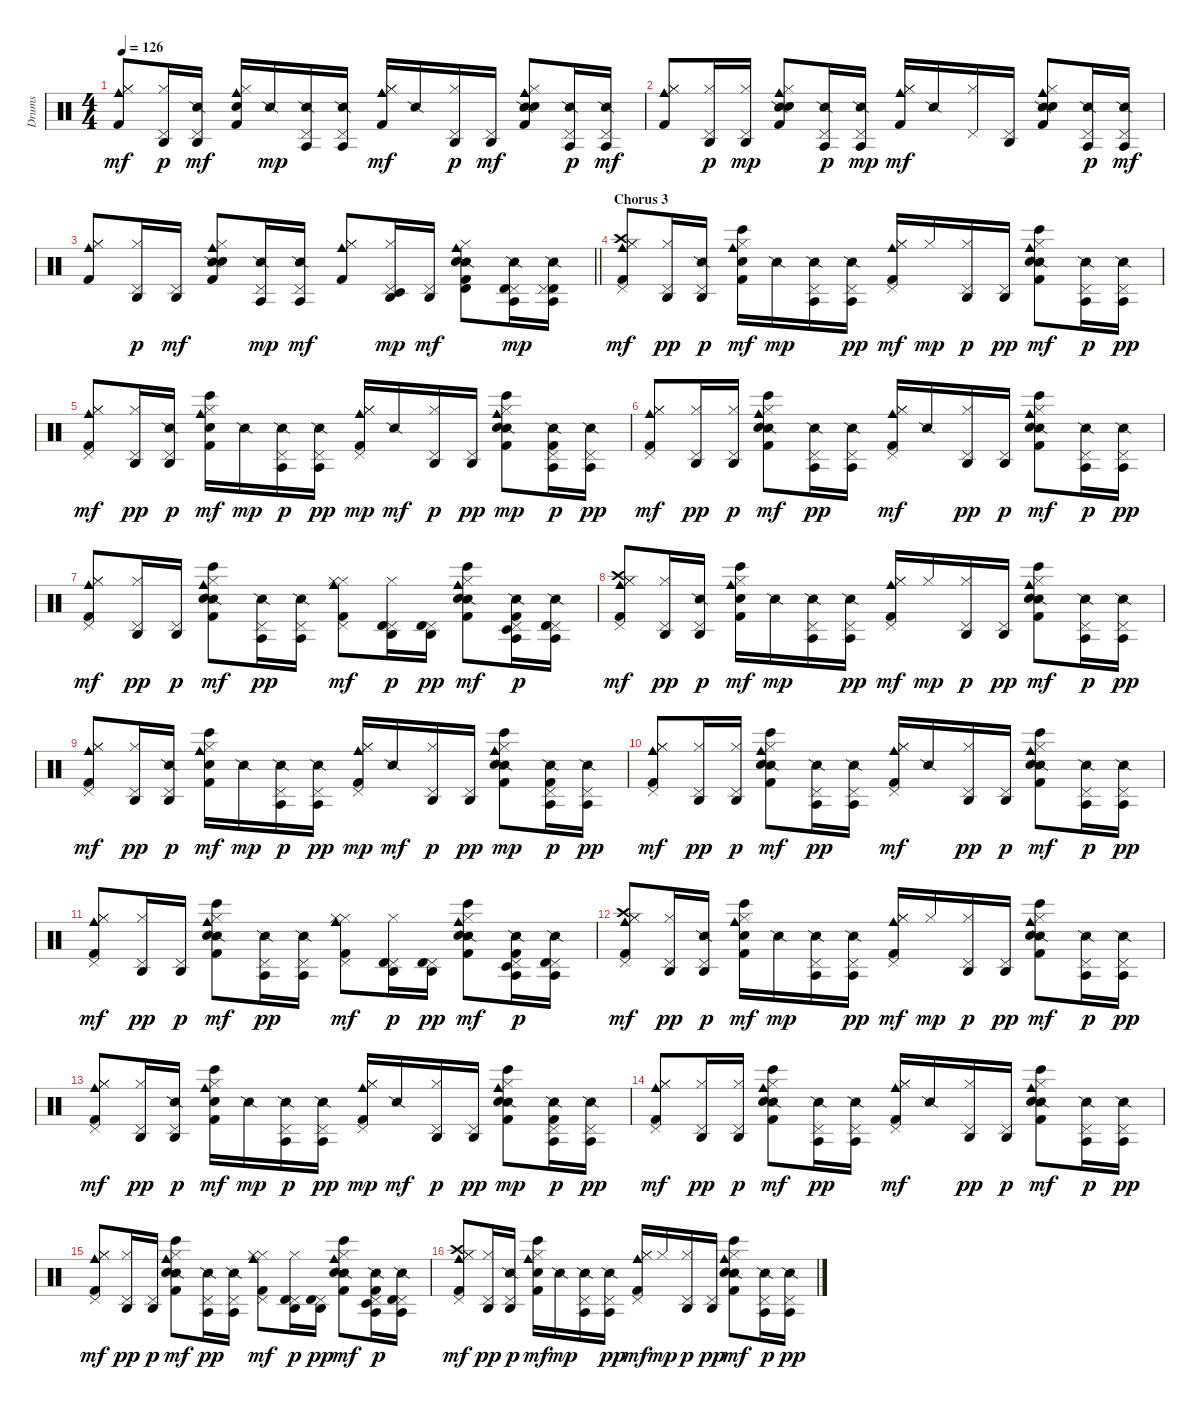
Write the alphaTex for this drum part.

\track ("Drums" "Drums") {instrument percussion}
\staff {score}
\articulation defaults
\ts (4 4)
\tempo 126
\clef neutral
\ks c
("Hi-Hat (closed)" "Kick (hit) 2" "Hi-Hat (closed)" "Cowbell medium (hit)").8{dy mf} ("Hi-Hat (closed)" "Pedal Hi-Hat (hit)" "Agogo high (hit)").16{dy p} ("Snare (side stick) 2" "Agogo high (hit)" "Pedal Hi-Hat (hit)").16{dy mf} ("Kick (hit) 2" "Hand Clap (hit)" "Hi-Hat (closed)" "Cowbell medium (hit)").16 "Snare (side stick) 2".16{dy mp} ("Snare (side stick) 2" "Pedal Hi-Hat (hit)" "Agogo tow (hit)").16 ("Snare (side stick) 2" "Agogo tow (hit)" "Pedal Hi-Hat (hit)").16 ("Hi-Hat (closed)" "Kick (hit) 2" "Hi-Hat (closed)" "Cowbell medium (hit)").16{dy mf} "Snare (side stick) 2".16 ("Hi-Hat (closed)" "Pedal Hi-Hat (hit)" "Agogo high (hit)").16{dy p} ("Agogo high (hit)" "Pedal Hi-Hat (hit)").16{dy mf} ("Snare (side stick) 2" "Kick (hit) 2" "Hand Clap (hit)" "Hi-Hat (closed)" "Cowbell medium (hit)").8 ("Snare (side stick) 2" "Pedal Hi-Hat (hit)" "Agogo tow (hit)").16{dy p} ("Snare (side stick) 2" "Agogo tow (hit)" "Pedal Hi-Hat (hit)").16{dy mf} |
("Hi-Hat (closed)" "Kick (hit) 2" "Hi-Hat (closed)" "Cowbell medium (hit)").8 ("Hi-Hat (closed)" "Pedal Hi-Hat (hit)" "Agogo high (hit)").16{dy p} ("Hi-Hat (closed)" "Agogo high (hit)" "Pedal Hi-Hat (hit)").16{dy mp} ("Snare (side stick) 2" "Kick (hit) 2" "Hand Clap (hit)" "Hi-Hat (closed)" "Cowbell medium (hit)").8 ("Snare (side stick) 2" "Pedal Hi-Hat (hit)" "Agogo tow (hit)").16{dy p} ("Snare (side stick) 2" "Agogo tow (hit)" "Pedal Hi-Hat (hit)").16{dy mp} ("Hi-Hat (closed)" "Kick (hit) 2" "Hi-Hat (closed)" "Cowbell medium (hit)").16{dy mf} "Snare (side stick) 2".16 ("Hi-Hat (closed)" "Pedal Hi-Hat (hit)").16 ("Agogo high (hit)" "Pedal Hi-Hat (hit)").16 ("Snare (side stick) 2" "Kick (hit) 2" "Hand Clap (hit)" "Hi-Hat (closed)" "Cowbell medium (hit)").8 ("Snare (side stick) 2" "Pedal Hi-Hat (hit)" "Agogo tow (hit)").16{dy p} ("Snare (side stick) 2" "Agogo tow (hit)" "Pedal Hi-Hat (hit)").16{dy mf} |
\barLineRight lightlight
("Hi-Hat (closed)" "Kick (hit) 2" "Hi-Hat (closed)" "Cowbell medium (hit)").8 ("Hi-Hat (closed)" "Pedal Hi-Hat (hit)" "Agogo high (hit)").16{dy p} ("Agogo high (hit)" "Pedal Hi-Hat (hit)").16{dy mf} ("Snare (side stick) 2" "Kick (hit) 2" "Hand Clap (hit)" "Hi-Hat (closed)" "Cowbell medium (hit)").8 ("Snare (side stick) 2" "Pedal Hi-Hat (hit)" "Agogo tow (hit)").16{dy mp} ("Snare (side stick) 2" "Agogo tow (hit)" "Pedal Hi-Hat (hit)").16{dy mf} ("Hi-Hat (closed)" "Kick (hit) 2" "Hi-Hat (closed)" "Cowbell medium (hit)").8 ("Hi-Hat (closed)" "Pedal Hi-Hat (hit)" "Timbale low (hit)" "Agogo high (hit)").16{dy mp} ("Agogo high (hit)" "Pedal Hi-Hat (hit)").16{dy mf} ("Snare (side stick) 2" "Kick (hit) 2" "Hand Clap (hit)" "Hi-Hat (closed)" "Cowbell medium (hit)" "Timbale high (hit)").8 ("Snare (side stick) 2" "Pedal Hi-Hat (hit)" "Timbale high (hit)" "Agogo tow (hit)").16{dy mp} ("Snare (side stick) 2" "Timbale high (hit)" "Agogo tow (hit)" "Pedal Hi-Hat (hit)").16 |
\section ("" "Chorus 3")
("Hi-Hat (closed)" "Kick (hit) 2" "Hi-Hat (closed)" "Pedal Hi-Hat (hit)" "Crash high (hit)" "Cowbell medium (hit)").8{dy mf} ("Hi-Hat (closed)" "Pedal Hi-Hat (hit)" "Agogo high (hit)").16{dy pp} ("Snare (side stick) 2" "Pedal Hi-Hat (hit)" "Agogo high (hit)").16{dy p} ("Bongo High (hit)" "Kick (hit) 2" "Hand Clap (hit)" "Hi-Hat (closed)" "Cowbell medium (hit)").16{dy mf} "Snare (side stick) 2".16{dy mp} ("Snare (side stick) 2" "Pedal Hi-Hat (hit)" "Agogo tow (hit)").16 ("Snare (side stick) 2" "Pedal Hi-Hat (hit)" "Agogo tow (hit)").16{dy pp} ("Hi-Hat (closed)" "Kick (hit) 2" "Hi-Hat (closed)" "Pedal Hi-Hat (hit)" "Cowbell medium (hit)").16{dy mf} "Hi-Hat (closed)".16{dy mp} ("Hi-Hat (closed)" "Pedal Hi-Hat (hit)" "Agogo high (hit)").16{dy p} ("Pedal Hi-Hat (hit)" "Agogo high (hit)").16{dy pp} ("Bongo High (hit)" "Snare (side stick) 2" "Kick (hit) 2" "Hand Clap (hit)" "Hi-Hat (closed)" "Cowbell medium (hit)").8{dy mf} ("Snare (side stick) 2" "Pedal Hi-Hat (hit)" "Agogo tow (hit)").16{dy p} ("Snare (side stick) 2" "Pedal Hi-Hat (hit)" "Agogo tow (hit)").16{dy pp} |
("Hi-Hat (closed)" "Kick (hit) 2" "Hi-Hat (closed)" "Pedal Hi-Hat (hit)" "Cowbell medium (hit)").8{dy mf} ("Hi-Hat (closed)" "Pedal Hi-Hat (hit)" "Agogo high (hit)").16{dy pp} ("Snare (side stick) 2" "Pedal Hi-Hat (hit)" "Agogo high (hit)").16{dy p} ("Bongo High (hit)" "Kick (hit) 2" "Hand Clap (hit)" "Hi-Hat (closed)" "Cowbell medium (hit)").16{dy mf} "Snare (side stick) 2".16{dy mp} ("Snare (side stick) 2" "Pedal Hi-Hat (hit)" "Agogo tow (hit)").16{dy p} ("Snare (side stick) 2" "Pedal Hi-Hat (hit)" "Agogo tow (hit)").16{dy pp} ("Hi-Hat (closed)" "Kick (hit) 2" "Hi-Hat (closed)" "Pedal Hi-Hat (hit)" "Cowbell medium (hit)").16{dy mp} "Snare (side stick) 2".16{dy mf} ("Hi-Hat (closed)" "Pedal Hi-Hat (hit)" "Agogo high (hit)").16{dy p} ("Pedal Hi-Hat (hit)" "Agogo high (hit)").16{dy pp} ("Bongo High (hit)" "Snare (side stick) 2" "Kick (hit) 2" "Hand Clap (hit)" "Hi-Hat (closed)" "Cowbell medium (hit)").8{dy mp} ("Snare (side stick) 2" "Kick (hit) 2" "Pedal Hi-Hat (hit)" "Agogo tow (hit)").16{dy p} ("Snare (side stick) 2" "Pedal Hi-Hat (hit)" "Agogo tow (hit)").16{dy pp} |
("Hi-Hat (closed)" "Kick (hit) 2" "Hi-Hat (closed)" "Pedal Hi-Hat (hit)" "Cowbell medium (hit)").8{dy mf} ("Hi-Hat (closed)" "Pedal Hi-Hat (hit)" "Agogo high (hit)").16{dy pp} ("Hi-Hat (closed)" "Pedal Hi-Hat (hit)" "Agogo high (hit)").16{dy p} ("Bongo High (hit)" "Snare (side stick) 2" "Kick (hit) 2" "Hand Clap (hit)" "Hi-Hat (closed)" "Cowbell medium (hit)").8{dy mf} ("Snare (side stick) 2" "Pedal Hi-Hat (hit)" "Agogo tow (hit)").16{dy pp} ("Snare (side stick) 2" "Pedal Hi-Hat (hit)" "Agogo tow (hit)").16 ("Hi-Hat (closed)" "Kick (hit) 2" "Hi-Hat (closed)" "Pedal Hi-Hat (hit)" "Cowbell medium (hit)").16{dy mf} "Snare (side stick) 2".16 ("Hi-Hat (closed)" "Pedal Hi-Hat (hit)" "Agogo high (hit)").16{dy pp} ("Pedal Hi-Hat (hit)" "Agogo high (hit)").16{dy p} ("Bongo High (hit)" "Snare (side stick) 2" "Kick (hit) 2" "Hand Clap (hit)" "Hi-Hat (closed)" "Cowbell medium (hit)").8{dy mf} ("Snare (side stick) 2" "Pedal Hi-Hat (hit)" "Agogo tow (hit)").16{dy p} ("Snare (side stick) 2" "Pedal Hi-Hat (hit)" "Agogo tow (hit)").16{dy pp} |
("Hi-Hat (closed)" "Kick (hit) 2" "Hi-Hat (closed)" "Pedal Hi-Hat (hit)" "Cowbell medium (hit)").8{dy mf} ("Hi-Hat (closed)" "Pedal Hi-Hat (hit)" "Agogo high (hit)").16{dy pp} ("Pedal Hi-Hat (hit)" "Agogo high (hit)").16{dy p} ("Bongo High (hit)" "Snare (side stick) 2" "Kick (hit) 2" "Hand Clap (hit)" "Hi-Hat (closed)" "Cowbell medium (hit)").8{dy mf} ("Snare (side stick) 2" "Pedal Hi-Hat (hit)" "Agogo tow (hit)").16{dy pp} ("Snare (side stick) 2" "Pedal Hi-Hat (hit)" "Agogo tow (hit)").16 ("Hi-Hat (closed)" "Kick (hit) 2" "Hi-Hat (closed)" "Pedal Hi-Hat (hit)" "Cowbell medium (hit)").8{dy mf} ("Hi-Hat (closed)" "Pedal Hi-Hat (hit)" "Timbale high (hit)" "Agogo high (hit)").16{dy p} ("Pedal Hi-Hat (hit)" "Timbale high (hit)" "Agogo high (hit)").16{dy pp} ("Bongo High (hit)" "Snare (side stick) 2" "Kick (hit) 2" "Hand Clap (hit)" "Hi-Hat (closed)" "Cowbell medium (hit)").8{dy mf} ("Snare (side stick) 2" "Kick (hit) 2" "Pedal Hi-Hat (hit)" "Timbale low (hit)" "Agogo tow (hit)").16{dy p} ("Snare (side stick) 2" "Pedal Hi-Hat (hit)" "Timbale high (hit)" "Agogo tow (hit)").16 |
("Hi-Hat (closed)" "Kick (hit) 2" "Hi-Hat (closed)" "Pedal Hi-Hat (hit)" "Crash high (hit)" "Cowbell medium (hit)").8{dy mf} ("Hi-Hat (closed)" "Pedal Hi-Hat (hit)" "Agogo high (hit)").16{dy pp} ("Snare (side stick) 2" "Pedal Hi-Hat (hit)" "Agogo high (hit)").16{dy p} ("Bongo High (hit)" "Kick (hit) 2" "Hand Clap (hit)" "Hi-Hat (closed)" "Cowbell medium (hit)").16{dy mf} "Snare (side stick) 2".16{dy mp} ("Snare (side stick) 2" "Pedal Hi-Hat (hit)" "Agogo tow (hit)").16 ("Snare (side stick) 2" "Pedal Hi-Hat (hit)" "Agogo tow (hit)").16{dy pp} ("Hi-Hat (closed)" "Kick (hit) 2" "Hi-Hat (closed)" "Pedal Hi-Hat (hit)" "Cowbell medium (hit)").16{dy mf} "Hi-Hat (closed)".16{dy mp} ("Hi-Hat (closed)" "Pedal Hi-Hat (hit)" "Agogo high (hit)").16{dy p} ("Pedal Hi-Hat (hit)" "Agogo high (hit)").16{dy pp} ("Bongo High (hit)" "Snare (side stick) 2" "Kick (hit) 2" "Hand Clap (hit)" "Hi-Hat (closed)" "Cowbell medium (hit)").8{dy mf} ("Snare (side stick) 2" "Pedal Hi-Hat (hit)" "Agogo tow (hit)").16{dy p} ("Snare (side stick) 2" "Pedal Hi-Hat (hit)" "Agogo tow (hit)").16{dy pp} |
("Hi-Hat (closed)" "Kick (hit) 2" "Hi-Hat (closed)" "Pedal Hi-Hat (hit)" "Cowbell medium (hit)").8{dy mf} ("Hi-Hat (closed)" "Pedal Hi-Hat (hit)" "Agogo high (hit)").16{dy pp} ("Snare (side stick) 2" "Pedal Hi-Hat (hit)" "Agogo high (hit)").16{dy p} ("Bongo High (hit)" "Kick (hit) 2" "Hand Clap (hit)" "Hi-Hat (closed)" "Cowbell medium (hit)").16{dy mf} "Snare (side stick) 2".16{dy mp} ("Snare (side stick) 2" "Pedal Hi-Hat (hit)" "Agogo tow (hit)").16{dy p} ("Snare (side stick) 2" "Pedal Hi-Hat (hit)" "Agogo tow (hit)").16{dy pp} ("Hi-Hat (closed)" "Kick (hit) 2" "Hi-Hat (closed)" "Pedal Hi-Hat (hit)" "Cowbell medium (hit)").16{dy mp} "Snare (side stick) 2".16{dy mf} ("Hi-Hat (closed)" "Pedal Hi-Hat (hit)" "Agogo high (hit)").16{dy p} ("Pedal Hi-Hat (hit)" "Agogo high (hit)").16{dy pp} ("Bongo High (hit)" "Snare (side stick) 2" "Kick (hit) 2" "Hand Clap (hit)" "Hi-Hat (closed)" "Cowbell medium (hit)").8{dy mp} ("Snare (side stick) 2" "Kick (hit) 2" "Pedal Hi-Hat (hit)" "Agogo tow (hit)").16{dy p} ("Snare (side stick) 2" "Pedal Hi-Hat (hit)" "Agogo tow (hit)").16{dy pp} |
("Hi-Hat (closed)" "Kick (hit) 2" "Hi-Hat (closed)" "Pedal Hi-Hat (hit)" "Cowbell medium (hit)").8{dy mf} ("Hi-Hat (closed)" "Pedal Hi-Hat (hit)" "Agogo high (hit)").16{dy pp} ("Hi-Hat (closed)" "Pedal Hi-Hat (hit)" "Agogo high (hit)").16{dy p} ("Bongo High (hit)" "Snare (side stick) 2" "Kick (hit) 2" "Hand Clap (hit)" "Hi-Hat (closed)" "Cowbell medium (hit)").8{dy mf} ("Snare (side stick) 2" "Pedal Hi-Hat (hit)" "Agogo tow (hit)").16{dy pp} ("Snare (side stick) 2" "Pedal Hi-Hat (hit)" "Agogo tow (hit)").16 ("Hi-Hat (closed)" "Kick (hit) 2" "Hi-Hat (closed)" "Pedal Hi-Hat (hit)" "Cowbell medium (hit)").16{dy mf} "Snare (side stick) 2".16 ("Hi-Hat (closed)" "Pedal Hi-Hat (hit)" "Agogo high (hit)").16{dy pp} ("Pedal Hi-Hat (hit)" "Agogo high (hit)").16{dy p} ("Bongo High (hit)" "Snare (side stick) 2" "Kick (hit) 2" "Hand Clap (hit)" "Hi-Hat (closed)" "Cowbell medium (hit)").8{dy mf} ("Snare (side stick) 2" "Pedal Hi-Hat (hit)" "Agogo tow (hit)").16{dy p} ("Snare (side stick) 2" "Pedal Hi-Hat (hit)" "Agogo tow (hit)").16{dy pp} |
("Hi-Hat (closed)" "Kick (hit) 2" "Hi-Hat (closed)" "Pedal Hi-Hat (hit)" "Cowbell medium (hit)").8{dy mf} ("Hi-Hat (closed)" "Pedal Hi-Hat (hit)" "Agogo high (hit)").16{dy pp} ("Pedal Hi-Hat (hit)" "Agogo high (hit)").16{dy p} ("Bongo High (hit)" "Snare (side stick) 2" "Kick (hit) 2" "Hand Clap (hit)" "Hi-Hat (closed)" "Cowbell medium (hit)").8{dy mf} ("Snare (side stick) 2" "Pedal Hi-Hat (hit)" "Agogo tow (hit)").16{dy pp} ("Snare (side stick) 2" "Pedal Hi-Hat (hit)" "Agogo tow (hit)").16 ("Hi-Hat (closed)" "Kick (hit) 2" "Hi-Hat (closed)" "Pedal Hi-Hat (hit)" "Cowbell medium (hit)").8{dy mf} ("Hi-Hat (closed)" "Pedal Hi-Hat (hit)" "Timbale high (hit)" "Agogo high (hit)").16{dy p} ("Pedal Hi-Hat (hit)" "Timbale high (hit)" "Agogo high (hit)").16{dy pp} ("Bongo High (hit)" "Snare (side stick) 2" "Kick (hit) 2" "Hand Clap (hit)" "Hi-Hat (closed)" "Cowbell medium (hit)").8{dy mf} ("Snare (side stick) 2" "Kick (hit) 2" "Pedal Hi-Hat (hit)" "Timbale low (hit)" "Agogo tow (hit)").16{dy p} ("Snare (side stick) 2" "Pedal Hi-Hat (hit)" "Timbale high (hit)" "Agogo tow (hit)").16 |
("Hi-Hat (closed)" "Kick (hit) 2" "Hi-Hat (closed)" "Pedal Hi-Hat (hit)" "Crash high (hit)" "Cowbell medium (hit)").8{dy mf} ("Hi-Hat (closed)" "Pedal Hi-Hat (hit)" "Agogo high (hit)").16{dy pp} ("Snare (side stick) 2" "Pedal Hi-Hat (hit)" "Agogo high (hit)").16{dy p} ("Bongo High (hit)" "Kick (hit) 2" "Hand Clap (hit)" "Hi-Hat (closed)" "Cowbell medium (hit)").16{dy mf} "Snare (side stick) 2".16{dy mp} ("Snare (side stick) 2" "Pedal Hi-Hat (hit)" "Agogo tow (hit)").16 ("Snare (side stick) 2" "Pedal Hi-Hat (hit)" "Agogo tow (hit)").16{dy pp} ("Hi-Hat (closed)" "Kick (hit) 2" "Hi-Hat (closed)" "Pedal Hi-Hat (hit)" "Cowbell medium (hit)").16{dy mf} "Hi-Hat (closed)".16{dy mp} ("Hi-Hat (closed)" "Pedal Hi-Hat (hit)" "Agogo high (hit)").16{dy p} ("Pedal Hi-Hat (hit)" "Agogo high (hit)").16{dy pp} ("Bongo High (hit)" "Snare (side stick) 2" "Kick (hit) 2" "Hand Clap (hit)" "Hi-Hat (closed)" "Cowbell medium (hit)").8{dy mf} ("Snare (side stick) 2" "Pedal Hi-Hat (hit)" "Agogo tow (hit)").16{dy p} ("Snare (side stick) 2" "Pedal Hi-Hat (hit)" "Agogo tow (hit)").16{dy pp} |
("Hi-Hat (closed)" "Kick (hit) 2" "Hi-Hat (closed)" "Pedal Hi-Hat (hit)" "Cowbell medium (hit)").8{dy mf} ("Hi-Hat (closed)" "Pedal Hi-Hat (hit)" "Agogo high (hit)").16{dy pp} ("Snare (side stick) 2" "Pedal Hi-Hat (hit)" "Agogo high (hit)").16{dy p} ("Bongo High (hit)" "Kick (hit) 2" "Hand Clap (hit)" "Hi-Hat (closed)" "Cowbell medium (hit)").16{dy mf} "Snare (side stick) 2".16{dy mp} ("Snare (side stick) 2" "Pedal Hi-Hat (hit)" "Agogo tow (hit)").16{dy p} ("Snare (side stick) 2" "Pedal Hi-Hat (hit)" "Agogo tow (hit)").16{dy pp} ("Hi-Hat (closed)" "Kick (hit) 2" "Hi-Hat (closed)" "Pedal Hi-Hat (hit)" "Cowbell medium (hit)").16{dy mp} "Snare (side stick) 2".16{dy mf} ("Hi-Hat (closed)" "Pedal Hi-Hat (hit)" "Agogo high (hit)").16{dy p} ("Pedal Hi-Hat (hit)" "Agogo high (hit)").16{dy pp} ("Bongo High (hit)" "Snare (side stick) 2" "Kick (hit) 2" "Hand Clap (hit)" "Hi-Hat (closed)" "Cowbell medium (hit)").8{dy mp} ("Snare (side stick) 2" "Kick (hit) 2" "Pedal Hi-Hat (hit)" "Agogo tow (hit)").16{dy p} ("Snare (side stick) 2" "Pedal Hi-Hat (hit)" "Agogo tow (hit)").16{dy pp} |
("Hi-Hat (closed)" "Kick (hit) 2" "Hi-Hat (closed)" "Pedal Hi-Hat (hit)" "Cowbell medium (hit)").8{dy mf} ("Hi-Hat (closed)" "Pedal Hi-Hat (hit)" "Agogo high (hit)").16{dy pp} ("Hi-Hat (closed)" "Pedal Hi-Hat (hit)" "Agogo high (hit)").16{dy p} ("Bongo High (hit)" "Snare (side stick) 2" "Kick (hit) 2" "Hand Clap (hit)" "Hi-Hat (closed)" "Cowbell medium (hit)").8{dy mf} ("Snare (side stick) 2" "Pedal Hi-Hat (hit)" "Agogo tow (hit)").16{dy pp} ("Snare (side stick) 2" "Pedal Hi-Hat (hit)" "Agogo tow (hit)").16 ("Hi-Hat (closed)" "Kick (hit) 2" "Hi-Hat (closed)" "Pedal Hi-Hat (hit)" "Cowbell medium (hit)").16{dy mf} "Snare (side stick) 2".16 ("Hi-Hat (closed)" "Pedal Hi-Hat (hit)" "Agogo high (hit)").16{dy pp} ("Pedal Hi-Hat (hit)" "Agogo high (hit)").16{dy p} ("Bongo High (hit)" "Snare (side stick) 2" "Kick (hit) 2" "Hand Clap (hit)" "Hi-Hat (closed)" "Cowbell medium (hit)").8{dy mf} ("Snare (side stick) 2" "Pedal Hi-Hat (hit)" "Agogo tow (hit)").16{dy p} ("Snare (side stick) 2" "Pedal Hi-Hat (hit)" "Agogo tow (hit)").16{dy pp} |
("Hi-Hat (closed)" "Kick (hit) 2" "Hi-Hat (closed)" "Pedal Hi-Hat (hit)" "Cowbell medium (hit)").8{dy mf} ("Hi-Hat (closed)" "Pedal Hi-Hat (hit)" "Agogo high (hit)").16{dy pp} ("Pedal Hi-Hat (hit)" "Agogo high (hit)").16{dy p} ("Bongo High (hit)" "Snare (side stick) 2" "Kick (hit) 2" "Hand Clap (hit)" "Hi-Hat (closed)" "Cowbell medium (hit)").8{dy mf} ("Snare (side stick) 2" "Pedal Hi-Hat (hit)" "Agogo tow (hit)").16{dy pp} ("Snare (side stick) 2" "Pedal Hi-Hat (hit)" "Agogo tow (hit)").16 ("Hi-Hat (closed)" "Kick (hit) 2" "Hi-Hat (closed)" "Pedal Hi-Hat (hit)" "Cowbell medium (hit)").8{dy mf} ("Hi-Hat (closed)" "Pedal Hi-Hat (hit)" "Timbale high (hit)" "Agogo high (hit)").16{dy p} ("Pedal Hi-Hat (hit)" "Timbale high (hit)" "Agogo high (hit)").16{dy pp} ("Bongo High (hit)" "Snare (side stick) 2" "Kick (hit) 2" "Hand Clap (hit)" "Hi-Hat (closed)" "Cowbell medium (hit)").8{dy mf} ("Snare (side stick) 2" "Kick (hit) 2" "Pedal Hi-Hat (hit)" "Timbale low (hit)" "Agogo tow (hit)").16{dy p} ("Snare (side stick) 2" "Pedal Hi-Hat (hit)" "Timbale high (hit)" "Agogo tow (hit)").16 |
("Hi-Hat (closed)" "Kick (hit) 2" "Hi-Hat (closed)" "Pedal Hi-Hat (hit)" "Crash high (hit)" "Cowbell medium (hit)").8{dy mf} ("Hi-Hat (closed)" "Pedal Hi-Hat (hit)" "Agogo high (hit)").16{dy pp} ("Snare (side stick) 2" "Pedal Hi-Hat (hit)" "Agogo high (hit)").16{dy p} ("Bongo High (hit)" "Kick (hit) 2" "Hand Clap (hit)" "Hi-Hat (closed)" "Cowbell medium (hit)").16{dy mf} "Snare (side stick) 2".16{dy mp} ("Snare (side stick) 2" "Pedal Hi-Hat (hit)" "Agogo tow (hit)").16 ("Snare (side stick) 2" "Pedal Hi-Hat (hit)" "Agogo tow (hit)").16{dy pp} ("Hi-Hat (closed)" "Kick (hit) 2" "Hi-Hat (closed)" "Pedal Hi-Hat (hit)" "Cowbell medium (hit)").16{dy mf} "Hi-Hat (closed)".16{dy mp} ("Hi-Hat (closed)" "Pedal Hi-Hat (hit)" "Agogo high (hit)").16{dy p} ("Pedal Hi-Hat (hit)" "Agogo high (hit)").16{dy pp} ("Bongo High (hit)" "Snare (side stick) 2" "Kick (hit) 2" "Hand Clap (hit)" "Hi-Hat (closed)" "Cowbell medium (hit)").8{dy mf} ("Snare (side stick) 2" "Pedal Hi-Hat (hit)" "Agogo tow (hit)").16{dy p} ("Snare (side stick) 2" "Pedal Hi-Hat (hit)" "Agogo tow (hit)").16{dy pp}
